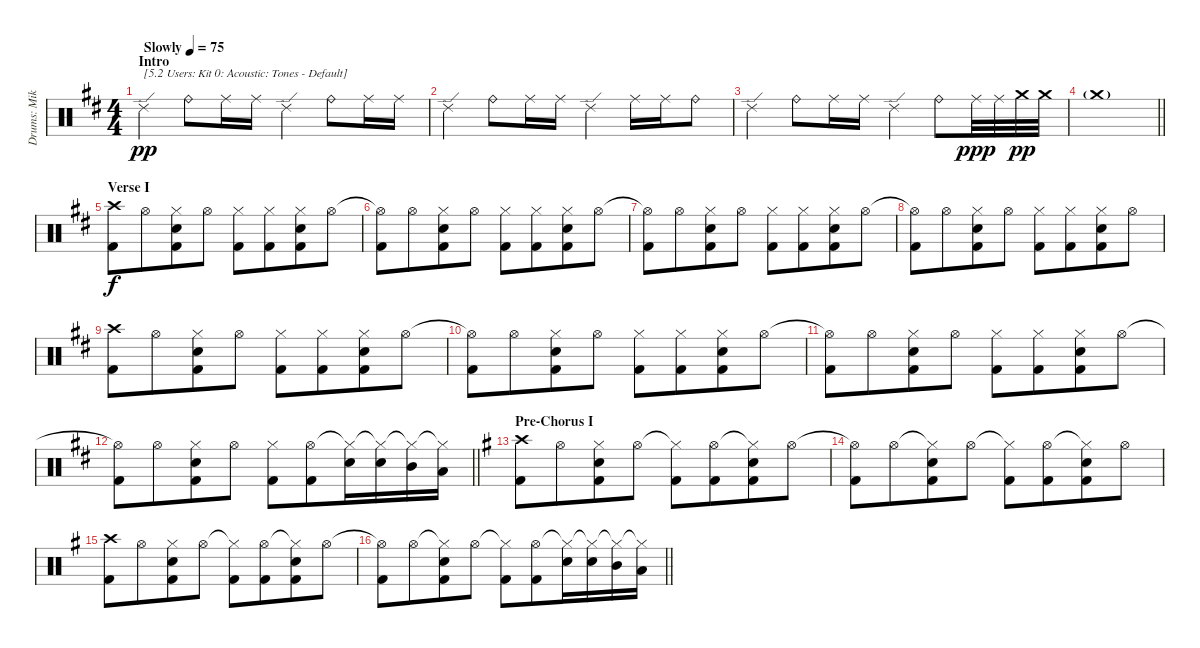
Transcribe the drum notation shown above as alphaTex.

\track ("Drums: Mike" "Drums: Mik") {instrument percussion}
\staff {score}
\articulation defaults
\ts (4 4)
\section ("" "Intro")
\tempo (75 "Slowly")
\clef neutral
\ks d "Ride (edge) 2".4{txt "[5.2 Users: Kit 0: Acoustic: Tones - Default]" dy pp} "Ride (bell)".8 "Ride (middle)".16 "Ride (middle)".16 "Ride (edge) 2".4 "Ride (bell)".8 "Ride (middle)".16 "Ride (middle)".16
|
"Ride (edge) 2".4 "Ride (bell)".8 "Ride (middle)".16 "Ride (middle)".16 "Ride (edge) 2".4 "Ride (middle)".16 "Ride (middle)".16 "Ride (bell)".8 |
"Ride (edge) 2".4 "Ride (bell)".8 "Ride (middle)".16 "Ride (middle)".16 "Ride (edge) 2".4 "Ride (bell)".8 "Ride (middle)".32{dy ppp} "Ride (middle)".32 "Crash medium (hit)".32{dy pp} "Crash medium (hit)".32 |
\barLineRight lightlight "Crash medium (hit)"{g}.1
|
\section ("" "Verse I")
("Crash high (hit)" "Kick (hit) 2").8{dy f} "Hi-Hat (open)".8{beam merge} ("Hi-Hat (closed)" "Electric Snare (hit)" "Kick (hit) 2").8 "Hi-Hat (open)".8 ("Hi-Hat (closed)" "Kick (hit) 2").8 ("Hi-Hat (closed)" "Kick (hit) 2").8{beam merge} ("Hi-Hat (closed)" "Electric Snare (hit)" "Kick (hit) 2").8 "Hi-Hat (open)".8 |
("Hi-Hat (open)"{t} "Kick (hit) 2").8 "Hi-Hat (open)".8{beam merge} ("Hi-Hat (closed)" "Electric Snare (hit)" "Kick (hit) 2").8 "Hi-Hat (open)".8 ("Hi-Hat (closed)" "Kick (hit) 2").8 ("Hi-Hat (closed)" "Kick (hit) 2").8{beam merge} ("Hi-Hat (closed)" "Electric Snare (hit)" "Kick (hit) 2").8 "Hi-Hat (open)".8 |
("Hi-Hat (open)"{t} "Kick (hit) 2").8 "Hi-Hat (open)".8{beam merge} ("Hi-Hat (closed)" "Electric Snare (hit)" "Kick (hit) 2").8 "Hi-Hat (open)".8 ("Hi-Hat (closed)" "Kick (hit) 2").8 ("Hi-Hat (closed)" "Kick (hit) 2").8{beam merge} ("Hi-Hat (closed)" "Electric Snare (hit)" "Kick (hit) 2").8 "Hi-Hat (open)".8 |
("Hi-Hat (open)"{t} "Kick (hit) 2").8 "Hi-Hat (open)".8{beam merge} ("Hi-Hat (closed)" "Electric Snare (hit)" "Kick (hit) 2").8 "Hi-Hat (open)".8 ("Hi-Hat (closed)" "Kick (hit) 2").8 ("Hi-Hat (closed)" "Kick (hit) 2").8{beam merge} ("Hi-Hat (closed)" "Electric Snare (hit)" "Kick (hit) 2").8 "Hi-Hat (open)".8 |
("Crash high (hit)" "Kick (hit) 2").8 "Hi-Hat (open)".8{beam merge} ("Hi-Hat (closed)" "Electric Snare (hit)" "Kick (hit) 2").8 "Hi-Hat (open)".8 ("Hi-Hat (closed)" "Kick (hit) 2").8 ("Hi-Hat (closed)" "Kick (hit) 2").8{beam merge} ("Hi-Hat (closed)" "Electric Snare (hit)" "Kick (hit) 2").8 "Hi-Hat (open)".8 |
("Hi-Hat (open)"{t} "Kick (hit) 2").8 "Hi-Hat (open)".8{beam merge} ("Hi-Hat (closed)" "Electric Snare (hit)" "Kick (hit) 2").8 "Hi-Hat (open)".8 ("Hi-Hat (closed)" "Kick (hit) 2").8 ("Hi-Hat (closed)" "Kick (hit) 2").8{beam merge} ("Hi-Hat (closed)" "Electric Snare (hit)" "Kick (hit) 2").8 "Hi-Hat (open)".8 |
("Hi-Hat (open)"{t} "Kick (hit) 2").8 "Hi-Hat (open)".8{beam merge} ("Hi-Hat (closed)" "Electric Snare (hit)" "Kick (hit) 2").8 "Hi-Hat (open)".8 ("Hi-Hat (closed)" "Kick (hit) 2").8 ("Hi-Hat (closed)" "Kick (hit) 2").8{beam merge} ("Hi-Hat (closed)" "Electric Snare (hit)" "Kick (hit) 2").8 "Hi-Hat (open)".8 |
\barLineRight lightlight
("Hi-Hat (open)"{t} "Kick (hit) 2").8 "Hi-Hat (open)".8{beam merge} ("Hi-Hat (closed)" "Electric Snare (hit)" "Kick (hit) 2").8 "Hi-Hat (open)".8 ("Hi-Hat (closed)" "Kick (hit) 2").8 ("Hi-Hat (open)" "Kick (hit) 2").8{beam merge} ("Hi-Hat (closed)"{t} "Electric Snare (hit)").16{beam merge} ("Hi-Hat (closed)"{t} "Electric Snare (hit)").16{beam merge} ("Hi-Hat (closed)"{t} "Mid Tom (hit)").16{beam merge} ("Hi-Hat (closed)"{t} "Low Tom (hit)").16 |
\section ("" "Pre-Chorus I")
\ks g
("Crash high (hit)" "Kick (hit) 2").8 "Hi-Hat (open)".8{beam merge} ("Hi-Hat (closed)" "Electric Snare (hit)" "Kick (hit) 2").8 "Hi-Hat (open)".8 ("Hi-Hat (closed)"{t} "Kick (hit) 2").8 ("Hi-Hat (open)" "Kick (hit) 2").8{beam merge} ("Hi-Hat (closed)"{t} "Electric Snare (hit)" "Kick (hit) 2").8 "Hi-Hat (open)".8 |
("Hi-Hat (open)"{t} "Kick (hit) 2").8 "Hi-Hat (open)".8{beam merge} ("Hi-Hat (closed)"{t} "Electric Snare (hit)" "Kick (hit) 2").8 "Hi-Hat (open)".8 ("Hi-Hat (closed)"{t} "Kick (hit) 2").8 ("Hi-Hat (open)" "Kick (hit) 2").8{beam merge} ("Hi-Hat (closed)"{t} "Electric Snare (hit)" "Kick (hit) 2").8 "Hi-Hat (open)".8 |
("Crash high (hit)" "Kick (hit) 2").8 "Hi-Hat (open)".8{beam merge} ("Hi-Hat (closed)" "Electric Snare (hit)" "Kick (hit) 2").8 "Hi-Hat (open)".8 ("Hi-Hat (closed)"{t} "Kick (hit) 2").8 ("Hi-Hat (open)" "Kick (hit) 2").8{beam merge} ("Hi-Hat (closed)"{t} "Electric Snare (hit)" "Kick (hit) 2").8 "Hi-Hat (open)".8 |
\barLineRight lightlight
("Hi-Hat (open)"{t} "Kick (hit) 2").8 "Hi-Hat (open)".8{beam merge} ("Hi-Hat (closed)"{t} "Electric Snare (hit)" "Kick (hit) 2").8 "Hi-Hat (open)".8 ("Hi-Hat (closed)"{t} "Kick (hit) 2").8 ("Hi-Hat (open)" "Kick (hit) 2").8{beam merge} ("Hi-Hat (closed)"{t} "Electric Snare (hit)").16{beam merge} ("Hi-Hat (closed)"{t} "Electric Snare (hit)").16{beam merge} ("Hi-Hat (closed)"{t} "Mid Tom (hit)").16{beam merge} ("Hi-Hat (closed)"{t} "Low Tom (hit)").16
